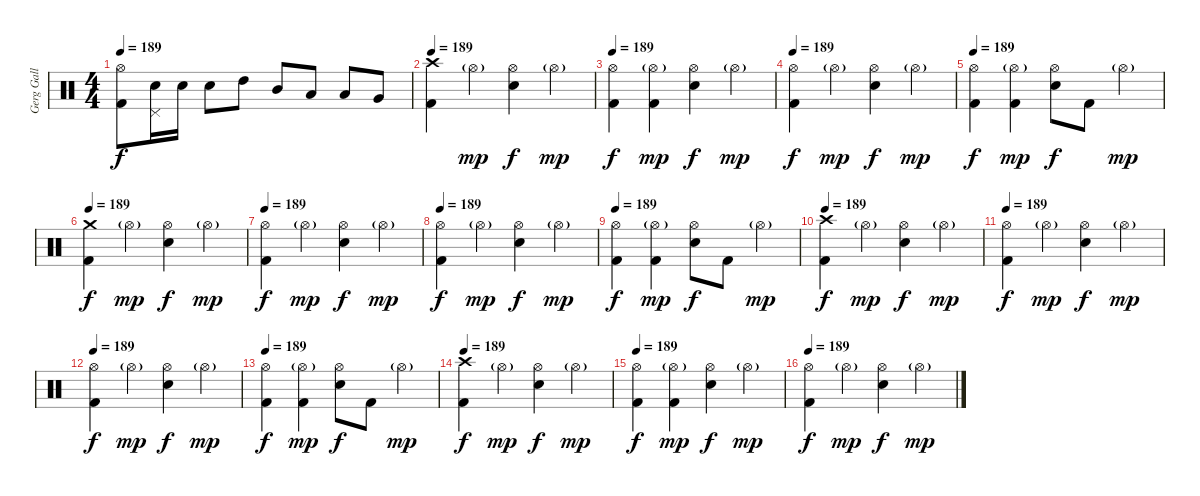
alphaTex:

\track ("Gerg Gall (Drums)" "Gerg Gall ") {instrument percussion}
\staff {score}
\articulation defaults
\ts (4 4)
\tempo 189
\clef neutral
\ks c
("Hi-Hat (open)" "Kick (hit) 2").8{dy f} ("Pedal Hi-Hat (hit)" "Snare (hit) 2").16 "Snare (hit) 2".16 "Snare (hit) 2".8 "High Tom (hit)".8 "Mid Tom (hit)".8 "Low Tom (hit)".8 "Low Tom (hit)".8 "Very Low Tom (hit)".8 |
\tempo 189
("Crash high (hit)" "Kick (hit) 2").4 "Hi-Hat (open)"{g}.4{dy mp} ("Hi-Hat (open)" "Snare (hit) 2").4{dy f} "Hi-Hat (open)"{g}.4{dy mp} |
\tempo 189
("Hi-Hat (open)" "Kick (hit) 2").4{dy f} ("Hi-Hat (open)"{g} "Kick (hit) 2").4{dy mp} ("Hi-Hat (open)" "Snare (hit) 2").4{dy f} "Hi-Hat (open)"{g}.4{dy mp} |
\tempo 189
("Hi-Hat (open)" "Kick (hit) 2").4{dy f} "Hi-Hat (open)"{g}.4{dy mp} ("Hi-Hat (open)" "Snare (hit) 2").4{dy f} "Hi-Hat (open)"{g}.4{dy mp} |
\tempo 189
("Hi-Hat (open)" "Kick (hit) 2").4{dy f} ("Hi-Hat (open)"{g} "Kick (hit) 2").4{dy mp} ("Hi-Hat (open)" "Snare (hit) 2").8{dy f} "Kick (hit) 2".8 "Hi-Hat (open)"{g}.4{dy mp} |
\tempo 189
("Crash medium (hit)" "Kick (hit) 2").4{dy f} "Hi-Hat (open)"{g}.4{dy mp} ("Hi-Hat (open)" "Snare (hit) 2").4{dy f} "Hi-Hat (open)"{g}.4{dy mp} |
\tempo 189
("Hi-Hat (open)" "Kick (hit) 2").4{dy f} "Hi-Hat (open)"{g}.4{dy mp} ("Hi-Hat (open)" "Snare (hit) 2").4{dy f} "Hi-Hat (open)"{g}.4{dy mp} |
\tempo 189
("Hi-Hat (open)" "Kick (hit) 2").4{dy f} "Hi-Hat (open)"{g}.4{dy mp} ("Hi-Hat (open)" "Snare (hit) 2").4{dy f} "Hi-Hat (open)"{g}.4{dy mp} |
\tempo 189
("Hi-Hat (open)" "Kick (hit) 2").4{dy f} ("Hi-Hat (open)"{g} "Kick (hit) 2").4{dy mp} ("Hi-Hat (open)" "Snare (hit) 2").8{dy f} "Kick (hit) 2".8 "Hi-Hat (open)"{g}.4{dy mp} |
\tempo 189
("Crash high (hit)" "Kick (hit) 2").4{dy f} "Hi-Hat (open)"{g}.4{dy mp} ("Hi-Hat (open)" "Snare (hit) 2").4{dy f} "Hi-Hat (open)"{g}.4{dy mp} |
\tempo 189
("Hi-Hat (open)" "Kick (hit) 2").4{dy f} "Hi-Hat (open)"{g}.4{dy mp} ("Hi-Hat (open)" "Snare (hit) 2").4{dy f} "Hi-Hat (open)"{g}.4{dy mp} |
\tempo 189
("Hi-Hat (open)" "Kick (hit) 2").4{dy f} "Hi-Hat (open)"{g}.4{dy mp} ("Hi-Hat (open)" "Snare (hit) 2").4{dy f} "Hi-Hat (open)"{g}.4{dy mp} |
\tempo 189
("Hi-Hat (open)" "Kick (hit) 2").4{dy f} ("Hi-Hat (open)"{g} "Kick (hit) 2").4{dy mp} ("Hi-Hat (open)" "Snare (hit) 2").8{dy f} "Kick (hit) 2".8 "Hi-Hat (open)"{g}.4{dy mp} |
\tempo 189
("Crash high (hit)" "Kick (hit) 2").4{dy f} "Hi-Hat (open)"{g}.4{dy mp} ("Hi-Hat (open)" "Snare (hit) 2").4{dy f} "Hi-Hat (open)"{g}.4{dy mp} |
\tempo 189
("Hi-Hat (open)" "Kick (hit) 2").4{dy f} ("Hi-Hat (open)"{g} "Kick (hit) 2").4{dy mp} ("Hi-Hat (open)" "Snare (hit) 2").4{dy f} "Hi-Hat (open)"{g}.4{dy mp} |
\tempo 189
("Hi-Hat (open)" "Kick (hit) 2").4{dy f} "Hi-Hat (open)"{g}.4{dy mp} ("Hi-Hat (open)" "Snare (hit) 2").4{dy f} "Hi-Hat (open)"{g}.4{dy mp}
